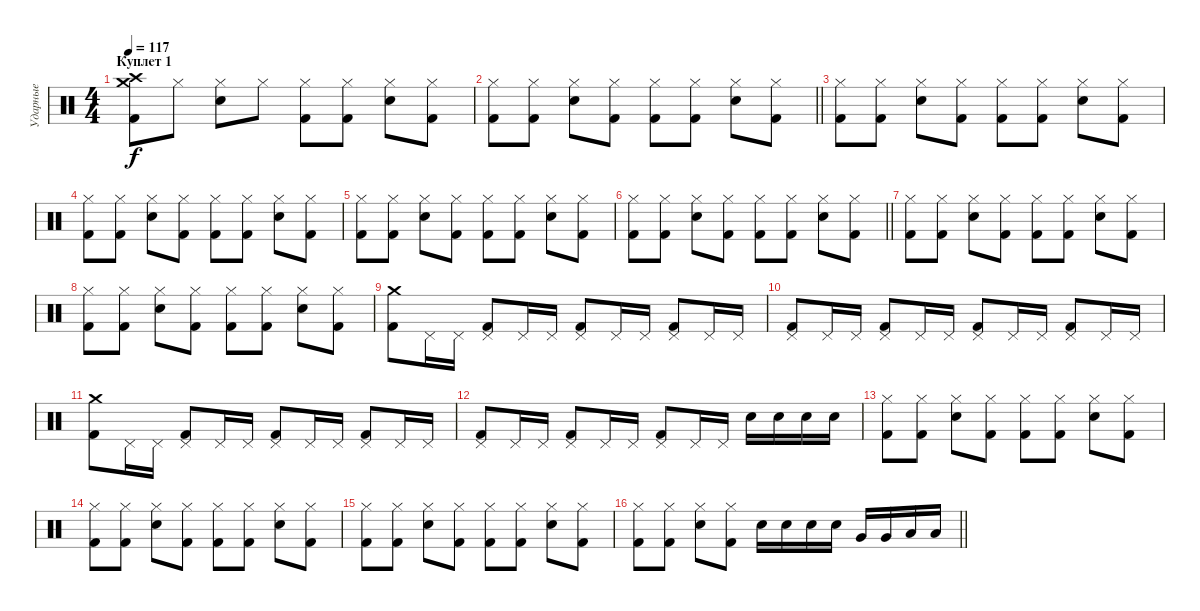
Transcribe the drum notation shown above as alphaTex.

\track ("Ударные" "Ударные") {instrument percussion}
\staff {score}
\articulation defaults
\ts (4 4)
\section ("" "Куплет 1")
\tempo 117
\clef neutral
\ks c
("Crash high (hit)" "Crash medium (hit)" "Kick (hit) 2").8{dy f} "Hi-Hat (closed)".8 ("Hi-Hat (closed)" "Electric Snare (hit)").8 "Hi-Hat (closed)".8 ("Hi-Hat (closed)" "Kick (hit) 2").8 ("Hi-Hat (closed)" "Kick (hit) 2").8 ("Hi-Hat (closed)" "Electric Snare (hit)").8 ("Hi-Hat (closed)" "Kick (hit) 2").8 |
\barLineRight lightlight
("Hi-Hat (closed)" "Kick (hit) 2").8 ("Hi-Hat (closed)" "Kick (hit) 2").8 ("Hi-Hat (closed)" "Electric Snare (hit)").8 ("Hi-Hat (closed)" "Kick (hit) 2").8 ("Hi-Hat (closed)" "Kick (hit) 2").8 ("Hi-Hat (closed)" "Kick (hit) 2").8 ("Hi-Hat (closed)" "Electric Snare (hit)").8 ("Hi-Hat (closed)" "Kick (hit) 2").8 |
("Hi-Hat (closed)" "Kick (hit) 2").8 ("Hi-Hat (closed)" "Kick (hit) 2").8 ("Hi-Hat (closed)" "Electric Snare (hit)").8 ("Hi-Hat (closed)" "Kick (hit) 2").8 ("Hi-Hat (closed)" "Kick (hit) 2").8 ("Hi-Hat (closed)" "Kick (hit) 2").8 ("Hi-Hat (closed)" "Electric Snare (hit)").8 ("Hi-Hat (closed)" "Kick (hit) 2").8 |
("Hi-Hat (closed)" "Kick (hit) 2").8 ("Hi-Hat (closed)" "Kick (hit) 2").8 ("Hi-Hat (closed)" "Electric Snare (hit)").8 ("Hi-Hat (closed)" "Kick (hit) 2").8 ("Hi-Hat (closed)" "Kick (hit) 2").8 ("Hi-Hat (closed)" "Kick (hit) 2").8 ("Hi-Hat (closed)" "Electric Snare (hit)").8 ("Hi-Hat (closed)" "Kick (hit) 2").8 |
("Hi-Hat (closed)" "Kick (hit) 2").8 ("Hi-Hat (closed)" "Kick (hit) 2").8 ("Hi-Hat (closed)" "Electric Snare (hit)").8 ("Hi-Hat (closed)" "Kick (hit) 2").8 ("Hi-Hat (closed)" "Kick (hit) 2").8 ("Hi-Hat (closed)" "Kick (hit) 2").8 ("Hi-Hat (closed)" "Electric Snare (hit)").8 ("Hi-Hat (closed)" "Kick (hit) 2").8 |
\barLineRight lightlight
("Hi-Hat (closed)" "Kick (hit) 2").8 ("Hi-Hat (closed)" "Kick (hit) 2").8 ("Hi-Hat (closed)" "Electric Snare (hit)").8 ("Hi-Hat (closed)" "Kick (hit) 2").8 ("Hi-Hat (closed)" "Kick (hit) 2").8 ("Hi-Hat (closed)" "Kick (hit) 2").8 ("Hi-Hat (closed)" "Electric Snare (hit)").8 ("Hi-Hat (closed)" "Kick (hit) 2").8 |
("Hi-Hat (closed)" "Kick (hit) 2").8 ("Hi-Hat (closed)" "Kick (hit) 2").8 ("Hi-Hat (closed)" "Electric Snare (hit)").8 ("Hi-Hat (closed)" "Kick (hit) 2").8 ("Hi-Hat (closed)" "Kick (hit) 2").8 ("Hi-Hat (closed)" "Kick (hit) 2").8 ("Hi-Hat (closed)" "Electric Snare (hit)").8 ("Hi-Hat (closed)" "Kick (hit) 2").8 |
("Hi-Hat (closed)" "Kick (hit) 2").8 ("Hi-Hat (closed)" "Kick (hit) 2").8 ("Hi-Hat (closed)" "Electric Snare (hit)").8 ("Hi-Hat (closed)" "Kick (hit) 2").8 ("Hi-Hat (closed)" "Kick (hit) 2").8 ("Hi-Hat (closed)" "Kick (hit) 2").8 ("Hi-Hat (closed)" "Electric Snare (hit)").8 ("Hi-Hat (closed)" "Kick (hit) 2").8 |
("Crash medium (hit)" "Kick (hit) 2").8 "Pedal Hi-Hat (hit)".16 "Pedal Hi-Hat (hit)".16 ("Pedal Hi-Hat (hit)" "Kick (hit) 2").8 "Pedal Hi-Hat (hit)".16 "Pedal Hi-Hat (hit)".16 ("Pedal Hi-Hat (hit)" "Kick (hit) 2").8 "Pedal Hi-Hat (hit)".16 "Pedal Hi-Hat (hit)".16 ("Pedal Hi-Hat (hit)" "Kick (hit) 2").8 "Pedal Hi-Hat (hit)".16 "Pedal Hi-Hat (hit)".16 |
("Pedal Hi-Hat (hit)" "Kick (hit) 2").8 "Pedal Hi-Hat (hit)".16 "Pedal Hi-Hat (hit)".16 ("Pedal Hi-Hat (hit)" "Kick (hit) 2").8 "Pedal Hi-Hat (hit)".16 "Pedal Hi-Hat (hit)".16 ("Pedal Hi-Hat (hit)" "Kick (hit) 2").8 "Pedal Hi-Hat (hit)".16 "Pedal Hi-Hat (hit)".16 ("Pedal Hi-Hat (hit)" "Kick (hit) 2").8 "Pedal Hi-Hat (hit)".16 "Pedal Hi-Hat (hit)".16 |
("Crash medium (hit)" "Kick (hit) 2").8 "Pedal Hi-Hat (hit)".16 "Pedal Hi-Hat (hit)".16 ("Pedal Hi-Hat (hit)" "Kick (hit) 2").8 "Pedal Hi-Hat (hit)".16 "Pedal Hi-Hat (hit)".16 ("Pedal Hi-Hat (hit)" "Kick (hit) 2").8 "Pedal Hi-Hat (hit)".16 "Pedal Hi-Hat (hit)".16 ("Pedal Hi-Hat (hit)" "Kick (hit) 2").8 "Pedal Hi-Hat (hit)".16 "Pedal Hi-Hat (hit)".16 |
("Pedal Hi-Hat (hit)" "Kick (hit) 2").8 "Pedal Hi-Hat (hit)".16 "Pedal Hi-Hat (hit)".16 ("Pedal Hi-Hat (hit)" "Kick (hit) 2").8 "Pedal Hi-Hat (hit)".16 "Pedal Hi-Hat (hit)".16 ("Pedal Hi-Hat (hit)" "Kick (hit) 2").8 "Pedal Hi-Hat (hit)".16 "Pedal Hi-Hat (hit)".16 "Electric Snare (hit)".16 "Electric Snare (hit)".16 "Electric Snare (hit)".16 "Electric Snare (hit)".16 |
("Hi-Hat (closed)" "Kick (hit) 2").8 ("Hi-Hat (closed)" "Kick (hit) 2").8 ("Hi-Hat (closed)" "Electric Snare (hit)").8 ("Hi-Hat (closed)" "Kick (hit) 2").8 ("Hi-Hat (closed)" "Kick (hit) 2").8 ("Hi-Hat (closed)" "Kick (hit) 2").8 ("Hi-Hat (closed)" "Electric Snare (hit)").8 ("Hi-Hat (closed)" "Kick (hit) 2").8 |
("Hi-Hat (closed)" "Kick (hit) 2").8 ("Hi-Hat (closed)" "Kick (hit) 2").8 ("Hi-Hat (closed)" "Electric Snare (hit)").8 ("Hi-Hat (closed)" "Kick (hit) 2").8 ("Hi-Hat (closed)" "Kick (hit) 2").8 ("Hi-Hat (closed)" "Kick (hit) 2").8 ("Hi-Hat (closed)" "Electric Snare (hit)").8 ("Hi-Hat (closed)" "Kick (hit) 2").8 |
("Hi-Hat (closed)" "Kick (hit) 2").8 ("Hi-Hat (closed)" "Kick (hit) 2").8 ("Hi-Hat (closed)" "Electric Snare (hit)").8 ("Hi-Hat (closed)" "Kick (hit) 2").8 ("Hi-Hat (closed)" "Kick (hit) 2").8 ("Hi-Hat (closed)" "Kick (hit) 2").8 ("Hi-Hat (closed)" "Electric Snare (hit)").8 ("Hi-Hat (closed)" "Kick (hit) 2").8 |
\barLineRight lightlight
("Hi-Hat (closed)" "Kick (hit) 2").8 ("Hi-Hat (closed)" "Kick (hit) 2").8 ("Hi-Hat (closed)" "Electric Snare (hit)").8 ("Hi-Hat (closed)" "Kick (hit) 2").8 "Electric Snare (hit)".16 "Electric Snare (hit)".16 "Electric Snare (hit)".16 "Electric Snare (hit)".16 "Very Low Tom (hit)".16 "Very Low Tom (hit)".16 "Low Tom (hit)".16 "Low Tom (hit)".16
